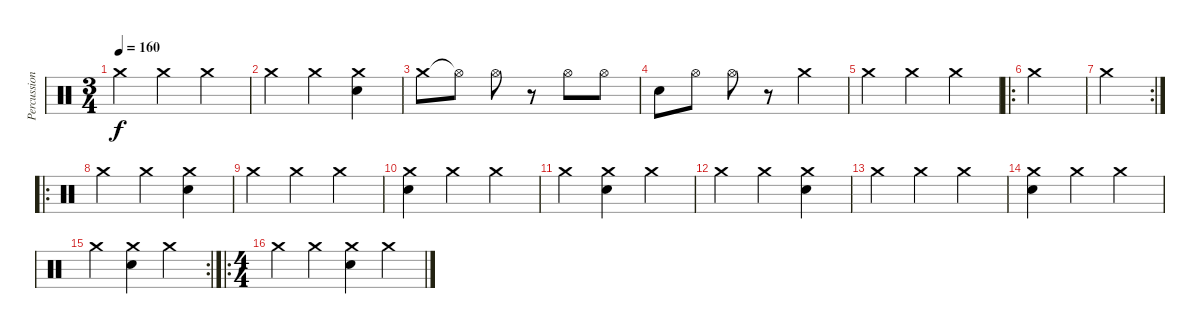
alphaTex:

\track ("Percussion" "Percussion") {instrument percussion}
\staff {score}
\articulation defaults
\ts (3 4)
\tempo 160
\clef neutral
\ks c "Crash medium (hit)".4{dy f} "Crash medium (hit)".4 "Crash medium (hit)".4
|
"Crash medium (hit)".4 "Crash medium (hit)".4 ("Crash medium (hit)" "Snare (hit) 2").4 |
"Crash medium (hit)".8 "Hi-Hat (open)"{t}.8 "Hi-Hat (open)".8 r.8 "Hi-Hat (open)".8 "Hi-Hat (open)".8 |
"Snare (hit) 2".8 "Hi-Hat (open)".8 "Hi-Hat (open)".8 r.8 "Crash medium (hit)".4 |
"Crash medium (hit)".4 "Crash medium (hit)".4 "Crash medium (hit)".4 |
\ro "Crash medium (hit)".2
|
\rc 2 "Crash medium (hit)".4
|
\ro "Crash medium (hit)".4 "Crash medium (hit)".4
("Crash medium (hit)" "Snare (hit) 2").4 |
"Crash medium (hit)".4 "Crash medium (hit)".4 "Crash medium (hit)".4 |
("Crash medium (hit)" "Snare (hit) 2").4 "Crash medium (hit)".4 "Crash medium (hit)".4 |
"Crash medium (hit)".4 ("Crash medium (hit)" "Snare (hit) 2").4 "Crash medium (hit)".4 |
"Crash medium (hit)".4 "Crash medium (hit)".4 ("Crash medium (hit)" "Snare (hit) 2").4 |
"Crash medium (hit)".4 "Crash medium (hit)".4 "Crash medium (hit)".4 |
("Crash medium (hit)" "Snare (hit) 2").4 "Crash medium (hit)".4 "Crash medium (hit)".4 |
\rc 2 "Crash medium (hit)".4
("Crash medium (hit)" "Snare (hit) 2").4 "Crash medium (hit)".4 |
\ro
\ts (4 4)
"Crash medium (hit)".4 "Crash medium (hit)".4 ("Crash medium (hit)" "Snare (hit) 2").4 "Crash medium (hit)".4
